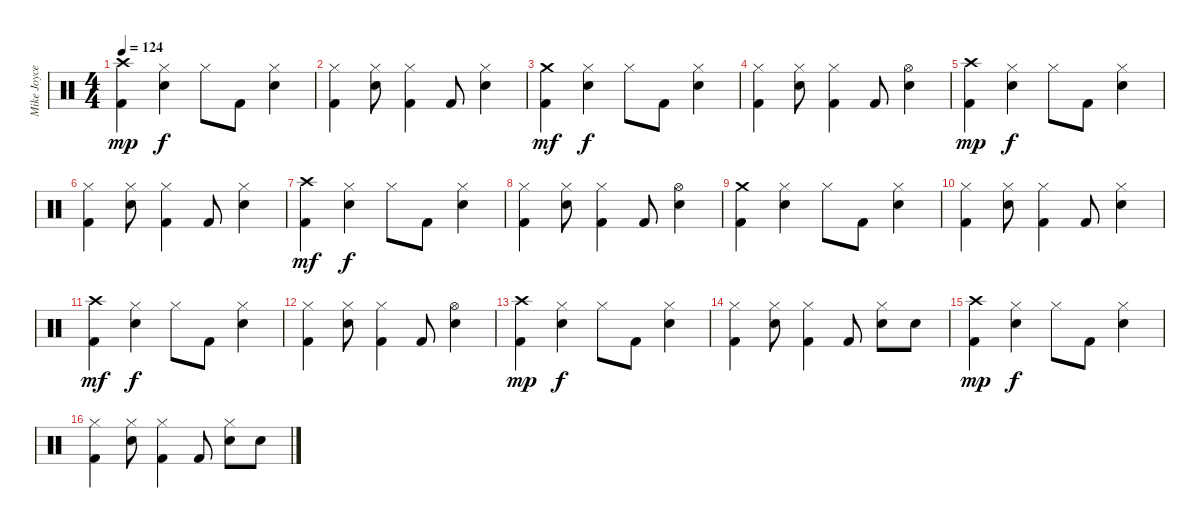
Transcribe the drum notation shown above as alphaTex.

\track ("Mike Joyce" "Mike Joyce") {instrument percussion}
\staff {score}
\articulation defaults
\ts (4 4)
\tempo 124
\clef neutral
\ks c
("Crash high (hit)" "Kick (hit) 2").4{dy mp} ("Hi-Hat (closed)" "Electric Snare (hit)").4{dy f} "Hi-Hat (closed)".8 "Kick (hit) 2".8 ("Hi-Hat (closed)" "Electric Snare (hit)").4 |
("Hi-Hat (closed)" "Kick (hit) 2").4 ("Hi-Hat (closed)" "Electric Snare (hit)").8 ("Hi-Hat (closed)" "Kick (hit) 2").4 "Kick (hit) 2".8 ("Hi-Hat (closed)" "Electric Snare (hit)").4 |
("Crash medium (hit)" "Kick (hit) 2").4{dy mf} ("Hi-Hat (closed)" "Electric Snare (hit)").4{dy f} "Hi-Hat (closed)".8 "Kick (hit) 2".8 ("Hi-Hat (closed)" "Electric Snare (hit)").4 |
("Hi-Hat (closed)" "Kick (hit) 2").4 ("Hi-Hat (closed)" "Electric Snare (hit)").8 ("Hi-Hat (closed)" "Kick (hit) 2").4 "Kick (hit) 2".8 ("Hi-Hat (open)" "Electric Snare (hit)").4 |
("Crash high (hit)" "Kick (hit) 2").4{dy mp} ("Hi-Hat (closed)" "Electric Snare (hit)").4{dy f} "Hi-Hat (closed)".8 "Kick (hit) 2".8 ("Hi-Hat (closed)" "Electric Snare (hit)").4 |
("Hi-Hat (closed)" "Kick (hit) 2").4 ("Hi-Hat (closed)" "Electric Snare (hit)").8 ("Hi-Hat (closed)" "Kick (hit) 2").4 "Kick (hit) 2".8 ("Hi-Hat (closed)" "Electric Snare (hit)").4 |
("Crash high (hit)" "Kick (hit) 2").4{dy mf} ("Hi-Hat (closed)" "Electric Snare (hit)").4{dy f} "Hi-Hat (closed)".8 "Kick (hit) 2".8 ("Hi-Hat (closed)" "Electric Snare (hit)").4 |
("Hi-Hat (closed)" "Kick (hit) 2").4 ("Hi-Hat (closed)" "Electric Snare (hit)").8 ("Hi-Hat (closed)" "Kick (hit) 2").4 "Kick (hit) 2".8 ("Hi-Hat (open)" "Electric Snare (hit)").4 |
("Crash medium (hit)" "Kick (hit) 2").4 ("Hi-Hat (closed)" "Electric Snare (hit)").4 "Hi-Hat (closed)".8 "Kick (hit) 2".8 ("Hi-Hat (closed)" "Electric Snare (hit)").4 |
("Hi-Hat (closed)" "Kick (hit) 2").4 ("Hi-Hat (closed)" "Electric Snare (hit)").8 ("Hi-Hat (closed)" "Kick (hit) 2").4 "Kick (hit) 2".8 ("Hi-Hat (closed)" "Electric Snare (hit)").4 |
("Crash high (hit)" "Kick (hit) 2").4{dy mf} ("Hi-Hat (closed)" "Electric Snare (hit)").4{dy f} "Hi-Hat (closed)".8 "Kick (hit) 2".8 ("Hi-Hat (closed)" "Electric Snare (hit)").4 |
("Hi-Hat (closed)" "Kick (hit) 2").4 ("Hi-Hat (closed)" "Electric Snare (hit)").8 ("Hi-Hat (closed)" "Kick (hit) 2").4 "Kick (hit) 2".8 ("Hi-Hat (open)" "Electric Snare (hit)").4 |
("Crash high (hit)" "Kick (hit) 2").4{dy mp} ("Hi-Hat (closed)" "Electric Snare (hit)").4{dy f} "Hi-Hat (closed)".8 "Kick (hit) 2".8 ("Hi-Hat (closed)" "Electric Snare (hit)").4 |
("Hi-Hat (closed)" "Kick (hit) 2").4 ("Hi-Hat (closed)" "Electric Snare (hit)").8 ("Hi-Hat (closed)" "Kick (hit) 2").4 "Kick (hit) 2".8 ("Hi-Hat (closed)" "Electric Snare (hit)").8 "Electric Snare (hit)".8 |
("Crash high (hit)" "Kick (hit) 2").4{dy mp} ("Hi-Hat (closed)" "Electric Snare (hit)").4{dy f} "Hi-Hat (closed)".8 "Kick (hit) 2".8 ("Hi-Hat (closed)" "Electric Snare (hit)").4 |
("Hi-Hat (closed)" "Kick (hit) 2").4 ("Hi-Hat (closed)" "Electric Snare (hit)").8 ("Hi-Hat (closed)" "Kick (hit) 2").4 "Kick (hit) 2".8 ("Hi-Hat (closed)" "Electric Snare (hit)").8 "Electric Snare (hit)".8
